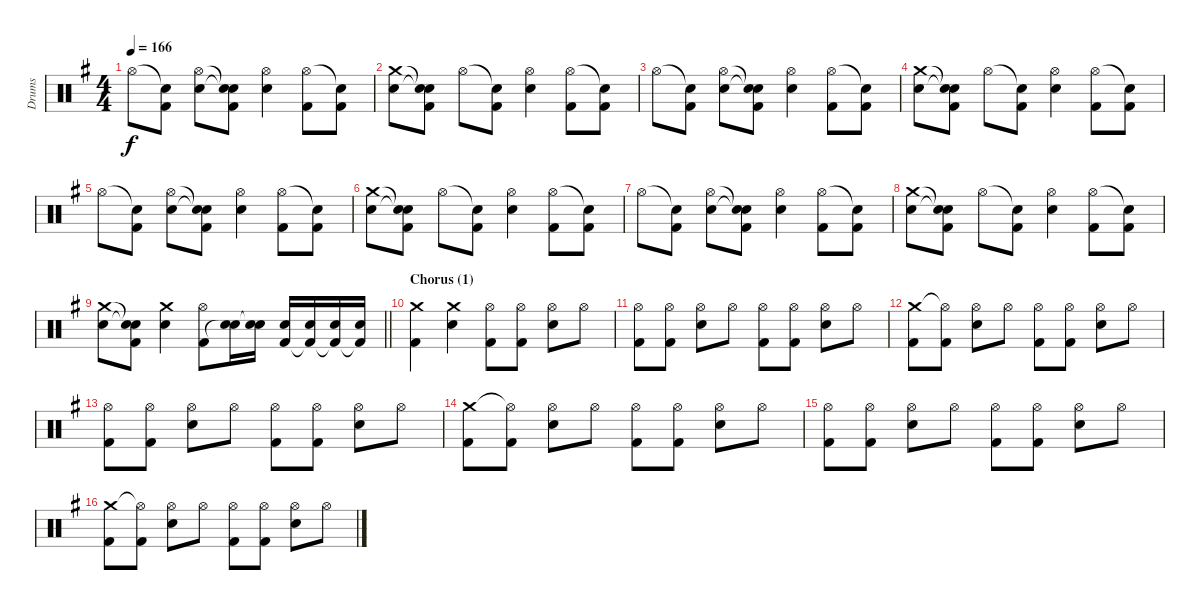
\track ("Drums" "Drums") {instrument percussion}
\staff {score}
\articulation defaults
\ts (4 4)
\tempo 166
\clef neutral
\ks g "Hi-Hat (open)".8{dy f}
("Snare (hit)"{t} "Kick (hit) 2").8 ("Hi-Hat (open)" "Electric Snare (hit)").8 ("Snare (hit)"{t} "Snare (hit)"{t} "Kick (hit) 2").8 ("Hi-Hat (open)" "Electric Snare (hit)").4 ("Hi-Hat (open)" "Kick (hit) 2").8 ("Snare (hit)"{t} "Kick (hit) 2").8 |
("Crash medium (hit)" "Electric Snare (hit)").8 ("Snare (hit)"{t} "Snare (hit)"{t} "Kick (hit) 2").8 "Hi-Hat (open)".8 ("Snare (hit)"{t} "Kick (hit) 2").8 ("Hi-Hat (open)" "Electric Snare (hit)").4 ("Hi-Hat (open)" "Kick (hit) 2").8 ("Snare (hit)"{t} "Kick (hit) 2").8 |
"Hi-Hat (open)".8 ("Snare (hit)"{t} "Kick (hit) 2").8 ("Hi-Hat (open)" "Electric Snare (hit)").8 ("Snare (hit)"{t} "Snare (hit)"{t} "Kick (hit) 2").8 ("Hi-Hat (open)" "Electric Snare (hit)").4 ("Hi-Hat (open)" "Kick (hit) 2").8 ("Snare (hit)"{t} "Kick (hit) 2").8 |
("Crash medium (hit)" "Electric Snare (hit)").8 ("Snare (hit)"{t} "Snare (hit)"{t} "Kick (hit) 2").8 "Hi-Hat (open)".8 ("Snare (hit)"{t} "Kick (hit) 2").8 ("Hi-Hat (open)" "Electric Snare (hit)").4 ("Hi-Hat (open)" "Kick (hit) 2").8 ("Snare (hit)"{t} "Kick (hit) 2").8 |
"Hi-Hat (open)".8 ("Snare (hit)"{t} "Kick (hit) 2").8 ("Hi-Hat (open)" "Electric Snare (hit)").8 ("Snare (hit)"{t} "Snare (hit)"{t} "Kick (hit) 2").8 ("Hi-Hat (open)" "Electric Snare (hit)").4 ("Hi-Hat (open)" "Kick (hit) 2").8 ("Snare (hit)"{t} "Kick (hit) 2").8 |
("Crash medium (hit)" "Electric Snare (hit)").8 ("Snare (hit)"{t} "Snare (hit)"{t} "Kick (hit) 2").8 "Hi-Hat (open)".8 ("Snare (hit)"{t} "Kick (hit) 2").8 ("Hi-Hat (open)" "Electric Snare (hit)").4 ("Hi-Hat (open)" "Kick (hit) 2").8 ("Snare (hit)"{t} "Kick (hit) 2").8 |
"Hi-Hat (open)".8 ("Snare (hit)"{t} "Kick (hit) 2").8 ("Hi-Hat (open)" "Electric Snare (hit)").8 ("Snare (hit)"{t} "Snare (hit)"{t} "Kick (hit) 2").8 ("Hi-Hat (open)" "Electric Snare (hit)").4 ("Hi-Hat (open)" "Kick (hit) 2").8 ("Snare (hit)"{t} "Kick (hit) 2").8 |
("Crash medium (hit)" "Electric Snare (hit)").8 ("Snare (hit)"{t} "Snare (hit)"{t} "Kick (hit) 2").8 "Hi-Hat (open)".8 ("Snare (hit)"{t} "Kick (hit) 2").8 ("Hi-Hat (open)" "Electric Snare (hit)").4 ("Hi-Hat (open)" "Kick (hit) 2").8 ("Snare (hit)"{t} "Kick (hit) 2").8 |
\barLineRight lightlight
("Crash medium (hit)" "Electric Snare (hit)").8 ("Snare (hit)"{t} "Snare (hit)"{t} "Kick (hit) 2").8 ("Crash medium (hit)" "Electric Snare (hit)").4 ("Hi-Hat (open)" "Kick (hit) 2").8 ("Electric Snare (hit)" "Snare (hit)"{t}).16 ("Electric Snare (hit)" "Snare (hit)"{t}).16 ("Electric Snare (hit)" "Kick (hit) 2").16 ("Electric Snare (hit)" "Kick (hit) 2"{t}).16 ("Electric Snare (hit)" "Kick (hit) 2"{t}).16 ("Electric Snare (hit)" "Kick (hit) 2"{t}).16 |
\section ("" "Chorus (1)")
("Crash medium (hit)" "Kick (hit) 2").4 ("Crash medium (hit)" "Electric Snare (hit)").4 ("Hi-Hat (open)" "Kick (hit) 2").8 ("Hi-Hat (open)" "Kick (hit) 2").8 ("Hi-Hat (open)" "Electric Snare (hit)").8 "Hi-Hat (open)".8 |
("Hi-Hat (open)" "Kick (hit) 2").8 ("Hi-Hat (open)" "Kick (hit) 2").8 ("Hi-Hat (open)" "Electric Snare (hit)").8 "Hi-Hat (open)".8 ("Hi-Hat (open)" "Kick (hit) 2").8 ("Hi-Hat (open)" "Kick (hit) 2").8 ("Hi-Hat (open)" "Electric Snare (hit)").8 "Hi-Hat (open)".8 |
("Crash medium (hit)" "Kick (hit) 2").8 ("Hi-Hat (open)"{t} "Kick (hit) 2").8 ("Hi-Hat (open)" "Electric Snare (hit)").8 "Hi-Hat (open)".8 ("Hi-Hat (open)" "Kick (hit) 2").8 ("Hi-Hat (open)" "Kick (hit) 2").8 ("Hi-Hat (open)" "Electric Snare (hit)").8 "Hi-Hat (open)".8 |
("Hi-Hat (open)" "Kick (hit) 2").8 ("Hi-Hat (open)" "Kick (hit) 2").8 ("Hi-Hat (open)" "Electric Snare (hit)").8 "Hi-Hat (open)".8 ("Hi-Hat (open)" "Kick (hit) 2").8 ("Hi-Hat (open)" "Kick (hit) 2").8 ("Hi-Hat (open)" "Electric Snare (hit)").8 "Hi-Hat (open)".8 |
("Crash medium (hit)" "Kick (hit) 2").8 ("Hi-Hat (open)"{t} "Kick (hit) 2").8 ("Hi-Hat (open)" "Electric Snare (hit)").8 "Hi-Hat (open)".8 ("Hi-Hat (open)" "Kick (hit) 2").8 ("Hi-Hat (open)" "Kick (hit) 2").8 ("Hi-Hat (open)" "Electric Snare (hit)").8 "Hi-Hat (open)".8 |
("Hi-Hat (open)" "Kick (hit) 2").8 ("Hi-Hat (open)" "Kick (hit) 2").8 ("Hi-Hat (open)" "Electric Snare (hit)").8 "Hi-Hat (open)".8 ("Hi-Hat (open)" "Kick (hit) 2").8 ("Hi-Hat (open)" "Kick (hit) 2").8 ("Hi-Hat (open)" "Electric Snare (hit)").8 "Hi-Hat (open)".8 |
("Crash medium (hit)" "Kick (hit) 2").8 ("Hi-Hat (open)"{t} "Kick (hit) 2").8 ("Hi-Hat (open)" "Electric Snare (hit)").8 "Hi-Hat (open)".8 ("Hi-Hat (open)" "Kick (hit) 2").8 ("Hi-Hat (open)" "Kick (hit) 2").8 ("Hi-Hat (open)" "Electric Snare (hit)").8 "Hi-Hat (open)".8
